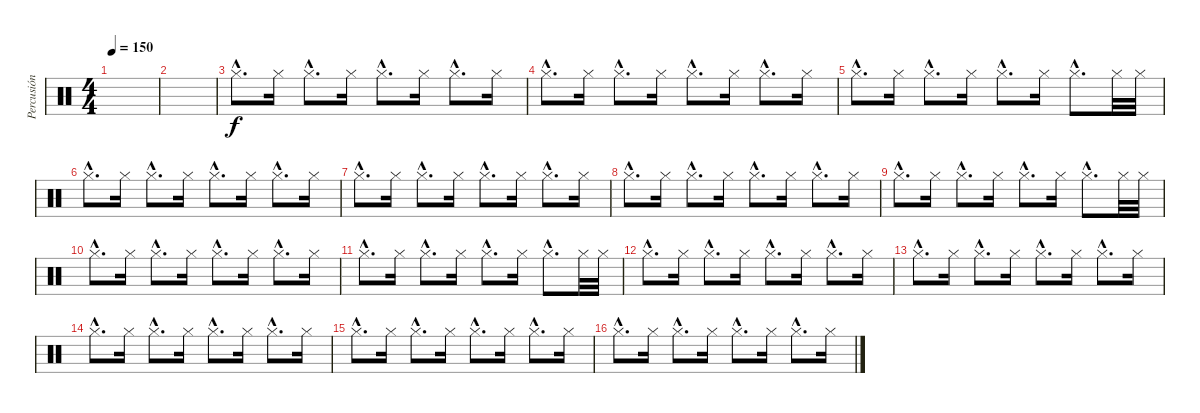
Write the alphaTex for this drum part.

\track ("Percusión" "Percusión") {instrument percussion}
\staff {score}
\articulation defaults
\ts (4 4)
\tempo 150
\clef neutral
\ks c
|
|
"Hi-Hat (closed)"{hac}.8{d} "Hi-Hat (closed)".16 "Hi-Hat (closed)"{hac}.8{d} "Hi-Hat (closed)".16 "Hi-Hat (closed)"{hac}.8{d} "Hi-Hat (closed)".16 "Hi-Hat (closed)"{hac}.8{d} "Hi-Hat (closed)".16 |
"Hi-Hat (closed)"{hac}.8{d} "Hi-Hat (closed)".16 "Hi-Hat (closed)"{hac}.8{d} "Hi-Hat (closed)".16 "Hi-Hat (closed)"{hac}.8{d} "Hi-Hat (closed)".16 "Hi-Hat (closed)"{hac}.8{d} "Hi-Hat (closed)".16 |
"Hi-Hat (closed)"{hac}.8{d} "Hi-Hat (closed)".16 "Hi-Hat (closed)"{hac}.8{d} "Hi-Hat (closed)".16 "Hi-Hat (closed)"{hac}.8{d} "Hi-Hat (closed)".16 "Hi-Hat (closed)"{hac}.8{d} "Hi-Hat (closed)".32 "Hi-Hat (closed)".32 |
"Hi-Hat (closed)"{hac}.8{d} "Hi-Hat (closed)".16 "Hi-Hat (closed)"{hac}.8{d} "Hi-Hat (closed)".16 "Hi-Hat (closed)"{hac}.8{d} "Hi-Hat (closed)".16 "Hi-Hat (closed)"{hac}.8{d} "Hi-Hat (closed)".16 |
"Hi-Hat (closed)"{hac}.8{d} "Hi-Hat (closed)".16 "Hi-Hat (closed)"{hac}.8{d} "Hi-Hat (closed)".16 "Hi-Hat (closed)"{hac}.8{d} "Hi-Hat (closed)".16 "Hi-Hat (closed)"{hac}.8{d} "Hi-Hat (closed)".16 |
"Hi-Hat (closed)"{hac}.8{d} "Hi-Hat (closed)".16 "Hi-Hat (closed)"{hac}.8{d} "Hi-Hat (closed)".16 "Hi-Hat (closed)"{hac}.8{d} "Hi-Hat (closed)".16 "Hi-Hat (closed)"{hac}.8{d} "Hi-Hat (closed)".16 |
"Hi-Hat (closed)"{hac}.8{d} "Hi-Hat (closed)".16 "Hi-Hat (closed)"{hac}.8{d} "Hi-Hat (closed)".16 "Hi-Hat (closed)"{hac}.8{d} "Hi-Hat (closed)".16 "Hi-Hat (closed)"{hac}.8{d} "Hi-Hat (closed)".32 "Hi-Hat (closed)".32 |
"Hi-Hat (closed)"{hac}.8{d} "Hi-Hat (closed)".16 "Hi-Hat (closed)"{hac}.8{d} "Hi-Hat (closed)".16 "Hi-Hat (closed)"{hac}.8{d} "Hi-Hat (closed)".16 "Hi-Hat (closed)"{hac}.8{d} "Hi-Hat (closed)".16 |
"Hi-Hat (closed)"{hac}.8{d} "Hi-Hat (closed)".16 "Hi-Hat (closed)"{hac}.8{d} "Hi-Hat (closed)".16 "Hi-Hat (closed)"{hac}.8{d} "Hi-Hat (closed)".16 "Hi-Hat (closed)"{hac}.8{d} "Hi-Hat (closed)".32 "Hi-Hat (closed)".32 |
"Hi-Hat (closed)"{hac}.8{d} "Hi-Hat (closed)".16 "Hi-Hat (closed)"{hac}.8{d} "Hi-Hat (closed)".16 "Hi-Hat (closed)"{hac}.8{d} "Hi-Hat (closed)".16 "Hi-Hat (closed)"{hac}.8{d} "Hi-Hat (closed)".16 |
"Hi-Hat (closed)"{hac}.8{d} "Hi-Hat (closed)".16 "Hi-Hat (closed)"{hac}.8{d} "Hi-Hat (closed)".16 "Hi-Hat (closed)"{hac}.8{d} "Hi-Hat (closed)".16 "Hi-Hat (closed)"{hac}.8{d} "Hi-Hat (closed)".16 |
"Hi-Hat (closed)"{hac}.8{d} "Hi-Hat (closed)".16 "Hi-Hat (closed)"{hac}.8{d} "Hi-Hat (closed)".16 "Hi-Hat (closed)"{hac}.8{d} "Hi-Hat (closed)".16 "Hi-Hat (closed)"{hac}.8{d} "Hi-Hat (closed)".16 |
"Hi-Hat (closed)"{hac}.8{d} "Hi-Hat (closed)".16 "Hi-Hat (closed)"{hac}.8{d} "Hi-Hat (closed)".16 "Hi-Hat (closed)"{hac}.8{d} "Hi-Hat (closed)".16 "Hi-Hat (closed)"{hac}.8{d} "Hi-Hat (closed)".16 |
"Hi-Hat (closed)"{hac}.8{d} "Hi-Hat (closed)".16 "Hi-Hat (closed)"{hac}.8{d} "Hi-Hat (closed)".16 "Hi-Hat (closed)"{hac}.8{d} "Hi-Hat (closed)".16 "Hi-Hat (closed)"{hac}.8{d} "Hi-Hat (closed)".16
